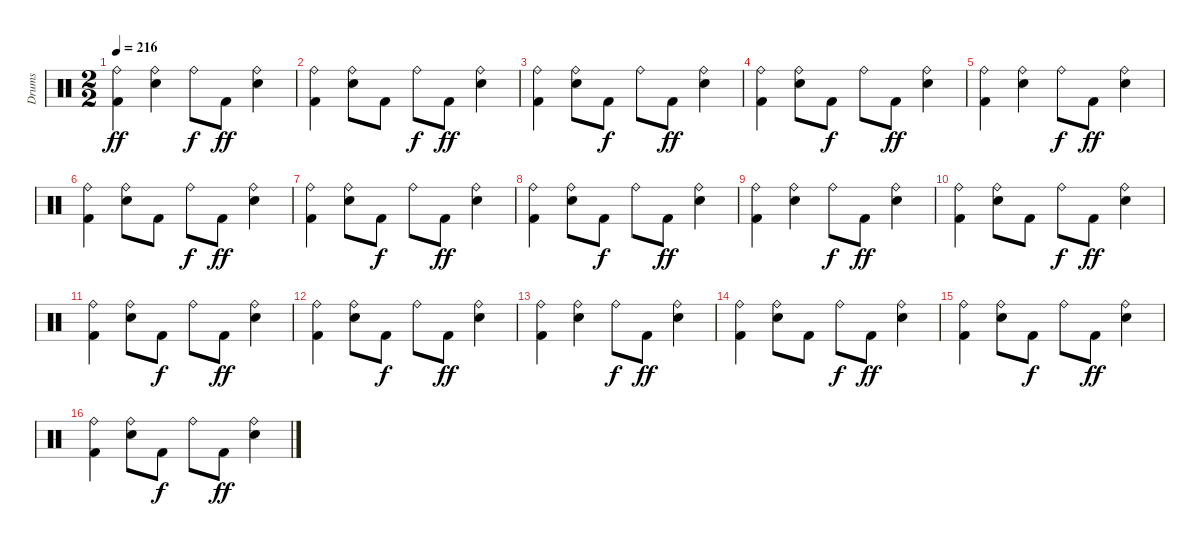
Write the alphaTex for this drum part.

\track ("Drums" "Drums") {instrument percussion}
\staff {score}
\articulation defaults
\ts (2 2)
\tempo 216
\clef neutral
\ks c
("Kick (hit) 2" "Ride (bell)").4{dy ff} ("Electric Snare (hit)" "Ride (bell)").4 "Ride (bell)".8{dy f} "Kick (hit) 2".8{dy ff} ("Electric Snare (hit)" "Ride (bell)").4 |
("Kick (hit) 2" "Ride (bell)").4 ("Electric Snare (hit)" "Ride (bell)").8 "Kick (hit) 2".8 "Ride (bell)".8{dy f} "Kick (hit) 2".8{dy ff} ("Electric Snare (hit)" "Ride (bell)").4 |
("Kick (hit) 2" "Ride (bell)").4 ("Electric Snare (hit)" "Ride (bell)").8 "Kick (hit) 2".8{dy f} "Ride (bell)".8 "Kick (hit) 2".8{dy ff} ("Electric Snare (hit)" "Ride (bell)").4 |
("Kick (hit) 2" "Ride (bell)").4 ("Electric Snare (hit)" "Ride (bell)").8 "Kick (hit) 2".8{dy f} "Ride (bell)".8 "Kick (hit) 2".8{dy ff} ("Electric Snare (hit)" "Ride (bell)").4 |
("Kick (hit) 2" "Ride (bell)").4 ("Electric Snare (hit)" "Ride (bell)").4 "Ride (bell)".8{dy f} "Kick (hit) 2".8{dy ff} ("Electric Snare (hit)" "Ride (bell)").4 |
("Kick (hit) 2" "Ride (bell)").4 ("Electric Snare (hit)" "Ride (bell)").8 "Kick (hit) 2".8 "Ride (bell)".8{dy f} "Kick (hit) 2".8{dy ff} ("Electric Snare (hit)" "Ride (bell)").4 |
("Kick (hit) 2" "Ride (bell)").4 ("Electric Snare (hit)" "Ride (bell)").8 "Kick (hit) 2".8{dy f} "Ride (bell)".8 "Kick (hit) 2".8{dy ff} ("Electric Snare (hit)" "Ride (bell)").4 |
("Kick (hit) 2" "Ride (bell)").4 ("Electric Snare (hit)" "Ride (bell)").8 "Kick (hit) 2".8{dy f} "Ride (bell)".8 "Kick (hit) 2".8{dy ff} ("Electric Snare (hit)" "Ride (bell)").4 |
("Kick (hit) 2" "Ride (bell)").4 ("Electric Snare (hit)" "Ride (bell)").4 "Ride (bell)".8{dy f} "Kick (hit) 2".8{dy ff} ("Electric Snare (hit)" "Ride (bell)").4 |
("Kick (hit) 2" "Ride (bell)").4 ("Electric Snare (hit)" "Ride (bell)").8 "Kick (hit) 2".8 "Ride (bell)".8{dy f} "Kick (hit) 2".8{dy ff} ("Electric Snare (hit)" "Ride (bell)").4 |
("Kick (hit) 2" "Ride (bell)").4 ("Electric Snare (hit)" "Ride (bell)").8 "Kick (hit) 2".8{dy f} "Ride (bell)".8 "Kick (hit) 2".8{dy ff} ("Electric Snare (hit)" "Ride (bell)").4 |
("Kick (hit) 2" "Ride (bell)").4 ("Electric Snare (hit)" "Ride (bell)").8 "Kick (hit) 2".8{dy f} "Ride (bell)".8 "Kick (hit) 2".8{dy ff} ("Electric Snare (hit)" "Ride (bell)").4 |
("Kick (hit) 2" "Ride (bell)").4 ("Electric Snare (hit)" "Ride (bell)").4 "Ride (bell)".8{dy f} "Kick (hit) 2".8{dy ff} ("Electric Snare (hit)" "Ride (bell)").4 |
("Kick (hit) 2" "Ride (bell)").4 ("Electric Snare (hit)" "Ride (bell)").8 "Kick (hit) 2".8 "Ride (bell)".8{dy f} "Kick (hit) 2".8{dy ff} ("Electric Snare (hit)" "Ride (bell)").4 |
("Kick (hit) 2" "Ride (bell)").4 ("Electric Snare (hit)" "Ride (bell)").8 "Kick (hit) 2".8{dy f} "Ride (bell)".8 "Kick (hit) 2".8{dy ff} ("Electric Snare (hit)" "Ride (bell)").4 |
("Kick (hit) 2" "Ride (bell)").4 ("Electric Snare (hit)" "Ride (bell)").8 "Kick (hit) 2".8{dy f} "Ride (bell)".8 "Kick (hit) 2".8{dy ff} ("Electric Snare (hit)" "Ride (bell)").4
